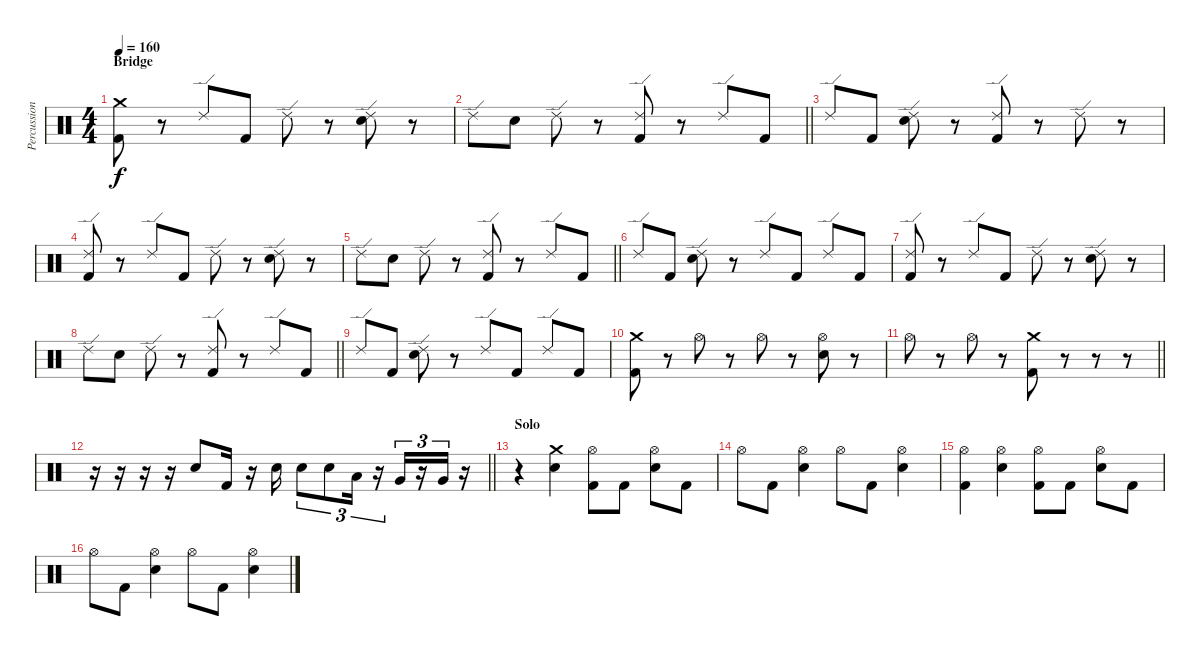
\track ("Percussion" "Percussion") {instrument percussion}
\staff {score}
\articulation defaults
\ts (4 4)
\section ("" "Bridge")
\tempo 160
\clef neutral
\ks c
("Crash medium (hit)" "Kick (hit) 2").8{dy f} r.8 "Ride (edge) 2".8 "Kick (hit) 2".8 "Ride (edge) 2".8 r.8 ("Ride (edge) 2" "Electric Snare (hit)").8 r.8 |
\barLineRight lightlight "Ride (edge) 2".8 "Electric Snare (hit)".8 "Ride (edge) 2".8
r.8 ("Ride (edge) 2" "Kick (hit) 2").8 r.8 "Ride (edge) 2".8 "Kick (hit) 2".8 |
"Ride (edge) 2".8 "Kick (hit) 2".8 ("Ride (edge) 2" "Electric Snare (hit)").8 r.8 ("Ride (edge) 2" "Kick (hit) 2").8 r.8 "Ride (edge) 2".8 r.8 |
("Ride (edge) 2" "Kick (hit) 2").8 r.8 "Ride (edge) 2".8 "Kick (hit) 2".8 "Ride (edge) 2".8 r.8 ("Ride (edge) 2" "Electric Snare (hit)").8 r.8 |
\barLineRight lightlight "Ride (edge) 2".8 "Electric Snare (hit)".8 "Ride (edge) 2".8
r.8 ("Ride (edge) 2" "Kick (hit) 2").8 r.8 "Ride (edge) 2".8 "Kick (hit) 2".8 |
"Ride (edge) 2".8 "Kick (hit) 2".8 ("Ride (edge) 2" "Electric Snare (hit)").8 r.8 "Ride (edge) 2".8 "Kick (hit) 2".8 "Ride (edge) 2".8 "Kick (hit) 2".8 |
("Ride (edge) 2" "Kick (hit) 2").8 r.8 "Ride (edge) 2".8 "Kick (hit) 2".8 "Ride (edge) 2".8 r.8 ("Ride (edge) 2" "Electric Snare (hit)").8 r.8 |
\barLineRight lightlight "Ride (edge) 2".8 "Electric Snare (hit)".8 "Ride (edge) 2".8
r.8 ("Ride (edge) 2" "Kick (hit) 2").8 r.8 "Ride (edge) 2".8 "Kick (hit) 2".8 |
"Ride (edge) 2".8 "Kick (hit) 2".8 ("Ride (edge) 2" "Electric Snare (hit)").8 r.8 "Ride (edge) 2".8 "Kick (hit) 2".8 "Ride (edge) 2".8 "Kick (hit) 2".8 |
("Crash medium (hit)" "Kick (hit) 2").8 r.8 "Hi-Hat (open)".8 r.8 "Hi-Hat (open)".8 r.8 ("Hi-Hat (open)" "Electric Snare (hit)").8 r.8 |
\barLineRight lightlight "Hi-Hat (open)".8
r.8 "Hi-Hat (open)".8 r.8 ("Crash medium (hit)" "Kick (hit) 2").8 r.8 r.8 r.8 |
\barLineRight lightlight
r.16 r.16 r.16 r.16 "Electric Snare (hit)".8 "Kick (hit) 2".16 r.16 "Electric Snare (hit)".16 "Electric Snare (hit)".8{tu (3 2)} "Electric Snare (hit)".8{tu (3 2)} "Low Tom (hit)".16{tu (3 2)} r.16{tu (3 2)} "Very Low Tom (hit)".16{tu (3 2)} r.16{tu (3 2)} "Very Low Tom (hit)".16{tu (3 2)} r.16 |
\section ("" "Solo")
r.4 ("Crash medium (hit)" "Electric Snare (hit)").4 ("Hi-Hat (open)" "Kick (hit) 2").8 "Kick (hit) 2".8 ("Hi-Hat (open)" "Electric Snare (hit)").8 "Kick (hit) 2".8 |
"Hi-Hat (open)".8 "Kick (hit) 2".8 ("Hi-Hat (open)" "Electric Snare (hit)").4 "Hi-Hat (open)".8 "Kick (hit) 2".8 ("Hi-Hat (open)" "Electric Snare (hit)").4 |
("Hi-Hat (open)" "Kick (hit) 2").4 ("Hi-Hat (open)" "Electric Snare (hit)").4 ("Hi-Hat (open)" "Kick (hit) 2").8 "Kick (hit) 2".8 ("Hi-Hat (open)" "Electric Snare (hit)").8 "Kick (hit) 2".8 |
"Hi-Hat (open)".8 "Kick (hit) 2".8 ("Hi-Hat (open)" "Electric Snare (hit)").4 "Hi-Hat (open)".8 "Kick (hit) 2".8 ("Hi-Hat (open)" "Electric Snare (hit)").4
